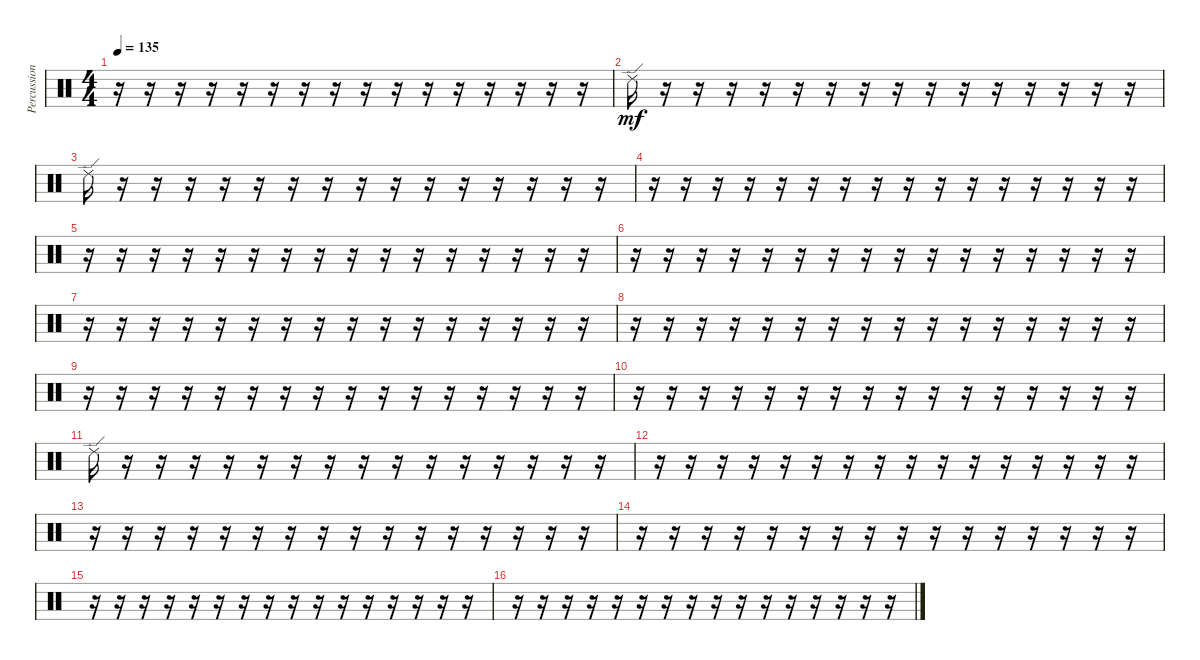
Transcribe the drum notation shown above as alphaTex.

\track ("Percussion (Orchestral Kit)" "Percussion") {instrument percussion}
\staff {score}
\articulation defaults
\ts (4 4)
\tempo 135
\clef neutral
\ks c
r.16{dy mf} r.16 r.16 r.16 r.16 r.16 r.16 r.16 r.16 r.16 r.16 r.16 r.16 r.16 r.16 r.16 |
"Ride (edge) 2".16 r.16 r.16 r.16 r.16 r.16 r.16 r.16 r.16 r.16 r.16 r.16 r.16 r.16 r.16 r.16 |
"Ride (edge) 2".16 r.16 r.16 r.16 r.16 r.16 r.16 r.16 r.16 r.16 r.16 r.16 r.16 r.16 r.16 r.16 |
r.16 r.16 r.16 r.16 r.16 r.16 r.16 r.16 r.16 r.16 r.16 r.16 r.16 r.16 r.16 r.16 |
r.16 r.16 r.16 r.16 r.16 r.16 r.16 r.16 r.16 r.16 r.16 r.16 r.16 r.16 r.16 r.16 |
r.16 r.16 r.16 r.16 r.16 r.16 r.16 r.16 r.16 r.16 r.16 r.16 r.16 r.16 r.16 r.16 |
r.16 r.16 r.16 r.16 r.16 r.16 r.16 r.16 r.16 r.16 r.16 r.16 r.16 r.16 r.16 r.16 |
r.16 r.16 r.16 r.16 r.16 r.16 r.16 r.16 r.16 r.16 r.16 r.16 r.16 r.16 r.16 r.16 |
r.16 r.16 r.16 r.16 r.16 r.16 r.16 r.16 r.16 r.16 r.16 r.16 r.16 r.16 r.16 r.16 |
r.16 r.16 r.16 r.16 r.16 r.16 r.16 r.16 r.16 r.16 r.16 r.16 r.16 r.16 r.16 r.16 |
"Ride (edge) 2".16 r.16 r.16 r.16 r.16 r.16 r.16 r.16 r.16 r.16 r.16 r.16 r.16 r.16 r.16 r.16 |
r.16 r.16 r.16 r.16 r.16 r.16 r.16 r.16 r.16 r.16 r.16 r.16 r.16 r.16 r.16 r.16 |
r.16 r.16 r.16 r.16 r.16 r.16 r.16 r.16 r.16 r.16 r.16 r.16 r.16 r.16 r.16 r.16 |
r.16 r.16 r.16 r.16 r.16 r.16 r.16 r.16 r.16 r.16 r.16 r.16 r.16 r.16 r.16 r.16 |
r.16 r.16 r.16 r.16 r.16 r.16 r.16 r.16 r.16 r.16 r.16 r.16 r.16 r.16 r.16 r.16 |
r.16 r.16 r.16 r.16 r.16 r.16 r.16 r.16 r.16 r.16 r.16 r.16 r.16 r.16 r.16 r.16
